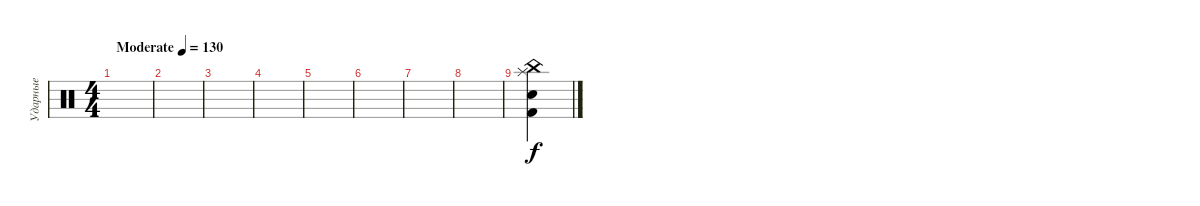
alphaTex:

\track ("Ударные" "Ударные") {instrument percussion}
\staff {score}
\articulation defaults
\ts (4 4)
\tempo (130 "Moderate")
\clef neutral
\ks c
|
|
|
|
|
|
|
|
("Snare (hit) 2" "Kick (hit) 2" "China (hit)" "Splash (hit)").4
